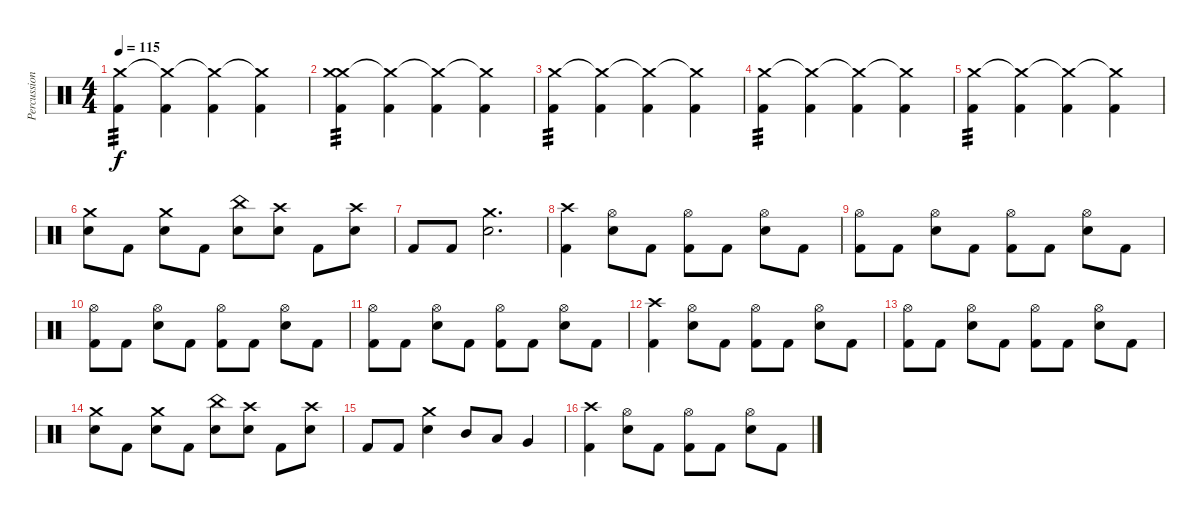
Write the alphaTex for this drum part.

\track ("Percussion" "Percussion") {instrument percussion}
\staff {score}
\articulation defaults
\ts (4 4)
\tempo 115
\clef neutral
\ks c
("Crash medium (hit)" "Kick (hit) 2").4{tp 3 dy f} ("Crash medium (hit)"{t} "Kick (hit) 2").4 ("Crash medium (hit)"{t} "Kick (hit) 2").4 ("Crash medium (hit)"{t} "Kick (hit) 2").4 |
("Crash medium (hit)" "Crash medium (hit)" "Kick (hit) 2").4{tp 3} ("Crash medium (hit)"{t} "Kick (hit) 2").4 ("Crash medium (hit)"{t} "Kick (hit) 2").4 ("Crash medium (hit)"{t} "Kick (hit) 2").4 |
("Crash medium (hit)" "Kick (hit) 2").4{tp 3} ("Crash medium (hit)"{t} "Kick (hit) 2").4 ("Crash medium (hit)"{t} "Kick (hit) 2").4 ("Crash medium (hit)"{t} "Kick (hit) 2").4 |
("Crash medium (hit)" "Kick (hit) 2").4{tp 3} ("Crash medium (hit)"{t} "Kick (hit) 2").4 ("Crash medium (hit)"{t} "Kick (hit) 2").4 ("Crash medium (hit)"{t} "Kick (hit) 2").4 |
("Crash medium (hit)" "Kick (hit) 2").4{tp 3} ("Crash medium (hit)"{t} "Kick (hit) 2").4 ("Crash medium (hit)"{t} "Kick (hit) 2").4 ("Crash medium (hit)"{t} "Kick (hit) 2").4 |
("Crash medium (hit)" "Electric Snare (hit)").8 "Kick (hit) 2".8 ("Crash medium (hit)" "Electric Snare (hit)").8 "Kick (hit) 2".8 ("China (hit)" "Electric Snare (hit)").8 ("Crash high (hit)" "Electric Snare (hit)").8 "Kick (hit) 2".8 ("Crash high (hit)" "Electric Snare (hit)").8 |
"Kick (hit) 2".8 "Kick (hit) 2".8 ("Crash medium (hit)" "Electric Snare (hit)").2{d} |
("Crash high (hit)" "Kick (hit) 2").4 ("Hi-Hat (open)" "Electric Snare (hit)").8 "Kick (hit) 2".8 ("Hi-Hat (open)" "Kick (hit) 2").8 "Kick (hit) 2".8 ("Hi-Hat (open)" "Electric Snare (hit)").8 "Kick (hit) 2".8 |
("Hi-Hat (open)" "Kick (hit) 2").8 "Kick (hit) 2".8 ("Hi-Hat (open)" "Electric Snare (hit)").8 "Kick (hit) 2".8 ("Hi-Hat (open)" "Kick (hit) 2").8 "Kick (hit) 2".8 ("Hi-Hat (open)" "Electric Snare (hit)").8 "Kick (hit) 2".8 |
("Hi-Hat (open)" "Kick (hit) 2").8 "Kick (hit) 2".8 ("Hi-Hat (open)" "Electric Snare (hit)").8 "Kick (hit) 2".8 ("Hi-Hat (open)" "Kick (hit) 2").8 "Kick (hit) 2".8 ("Hi-Hat (open)" "Electric Snare (hit)").8 "Kick (hit) 2".8 |
("Hi-Hat (open)" "Kick (hit) 2").8 "Kick (hit) 2".8 ("Hi-Hat (open)" "Electric Snare (hit)").8 "Kick (hit) 2".8 ("Hi-Hat (open)" "Kick (hit) 2").8 "Kick (hit) 2".8 ("Hi-Hat (open)" "Electric Snare (hit)").8 "Kick (hit) 2".8 |
("Crash high (hit)" "Kick (hit) 2").4 ("Hi-Hat (open)" "Electric Snare (hit)").8 "Kick (hit) 2".8 ("Hi-Hat (open)" "Kick (hit) 2").8 "Kick (hit) 2".8 ("Hi-Hat (open)" "Electric Snare (hit)").8 "Kick (hit) 2".8 |
("Hi-Hat (open)" "Kick (hit) 2").8 "Kick (hit) 2".8 ("Hi-Hat (open)" "Electric Snare (hit)").8 "Kick (hit) 2".8 ("Hi-Hat (open)" "Kick (hit) 2").8 "Kick (hit) 2".8 ("Hi-Hat (open)" "Electric Snare (hit)").8 "Kick (hit) 2".8 |
("Crash medium (hit)" "Electric Snare (hit)").8 "Kick (hit) 2".8 ("Crash medium (hit)" "Electric Snare (hit)").8 "Kick (hit) 2".8 ("China (hit)" "Electric Snare (hit)").8 ("Crash high (hit)" "Electric Snare (hit)").8 "Kick (hit) 2".8 ("Crash high (hit)" "Electric Snare (hit)").8 |
"Kick (hit) 2".8 "Kick (hit) 2".8 ("Crash medium (hit)" "Electric Snare (hit)").4 "Mid Tom (hit)".8 "Low Tom (hit)".8 "Very Low Tom (hit)".4 |
("Crash high (hit)" "Kick (hit) 2").4 ("Hi-Hat (open)" "Electric Snare (hit)").8 "Kick (hit) 2".8 ("Hi-Hat (open)" "Kick (hit) 2").8 "Kick (hit) 2".8 ("Hi-Hat (open)" "Electric Snare (hit)").8 "Kick (hit) 2".8
